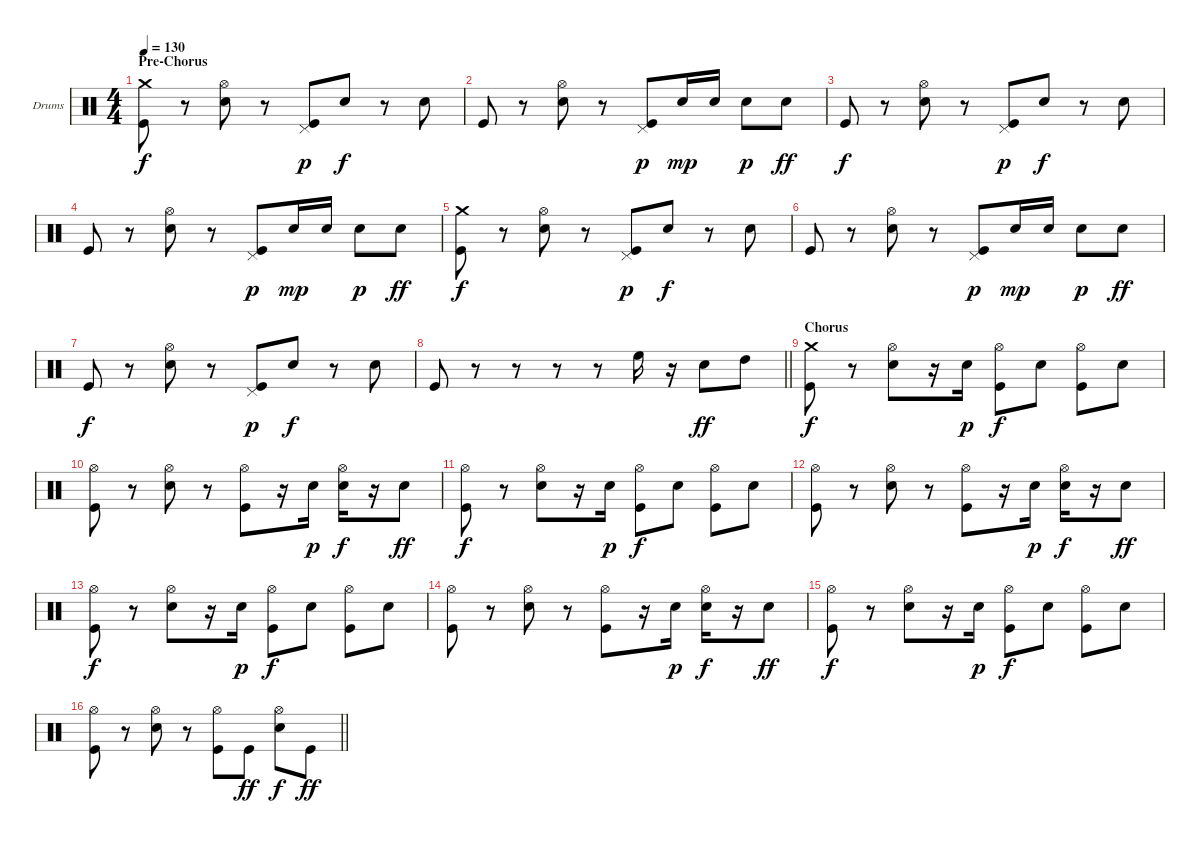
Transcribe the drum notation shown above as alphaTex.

\bracketExtendMode groupsimilarinstruments
\firstSystemTrackNameOrientation horizontal
\otherSystemsTrackNameOrientation horizontal
\track ("Drumkit" "Drums") {instrument percussion}
\staff {score}
\articulation defaults
\ts (4 4)
\section ("" "Pre-Chorus")
\tempo 130
\clef neutral
\ks c
("Crash medium (hit)" "Kick (hit)").8{dy f} r.8 ("Hi-Hat (open)" "Snare (hit) 2").8 r.8 ("Pedal Hi-Hat (hit)" "Kick (hit)").8{dy p} "Snare (hit) 2".8{dy f} r.8 "Snare (hit) 2".8 |
"Kick (hit)".8 r.8 ("Hi-Hat (open)" "Snare (hit) 2").8 r.8 ("Pedal Hi-Hat (hit)" "Kick (hit)").8{dy p} "Snare (hit) 2".16{dy mp} "Snare (hit) 2".16 "Snare (hit) 2".8{dy p} "Snare (hit) 2".8{dy ff} |
"Kick (hit)".8{dy f} r.8 ("Hi-Hat (open)" "Snare (hit) 2").8 r.8 ("Pedal Hi-Hat (hit)" "Kick (hit)").8{dy p} "Snare (hit) 2".8{dy f} r.8 "Snare (hit) 2".8 |
"Kick (hit)".8 r.8 ("Hi-Hat (open)" "Snare (hit) 2").8 r.8 ("Pedal Hi-Hat (hit)" "Kick (hit)").8{dy p} "Snare (hit) 2".16{dy mp} "Snare (hit) 2".16 "Snare (hit) 2".8{dy p} "Snare (hit) 2".8{dy ff} |
("Crash medium (hit)" "Kick (hit)").8{dy f} r.8 ("Hi-Hat (open)" "Snare (hit) 2").8 r.8 ("Pedal Hi-Hat (hit)" "Kick (hit)").8{dy p} "Snare (hit) 2".8{dy f} r.8 "Snare (hit) 2".8 |
"Kick (hit)".8 r.8 ("Hi-Hat (open)" "Snare (hit) 2").8 r.8 ("Pedal Hi-Hat (hit)" "Kick (hit)").8{dy p} "Snare (hit) 2".16{dy mp} "Snare (hit) 2".16 "Snare (hit) 2".8{dy p} "Snare (hit) 2".8{dy ff} |
"Kick (hit)".8{dy f} r.8 ("Hi-Hat (open)" "Snare (hit) 2").8 r.8 ("Pedal Hi-Hat (hit)" "Kick (hit)").8{dy p} "Snare (hit) 2".8{dy f} r.8 "Snare (hit) 2".8 |
\barLineRight lightlight "Kick (hit)".8
r.8 r.8 r.8 r.8 "High Floor Tom (hit)".16 r.16 "Snare (hit) 2".8{dy ff} "High Tom (hit)".8 |
\section ("" "Chorus")
("Crash medium (hit)" "Kick (hit)").8{dy f} r.8 ("Hi-Hat (open)" "Snare (hit) 2").8 r.16 "Snare (hit) 2".16{dy p} ("Hi-Hat (open)" "Kick (hit)").8{dy f} "Snare (hit) 2".8 ("Hi-Hat (open)" "Kick (hit)").8 "Snare (hit) 2".8 |
("Hi-Hat (open)" "Kick (hit)").8 r.8 ("Hi-Hat (open)" "Snare (hit) 2").8 r.8 ("Hi-Hat (open)" "Kick (hit)").8 r.16 "Snare (hit) 2".16{dy p} ("Hi-Hat (open)" "Snare (hit) 2").16{dy f} r.16 "Snare (hit) 2".8{dy ff} |
("Hi-Hat (open)" "Kick (hit)").8{dy f} r.8 ("Hi-Hat (open)" "Snare (hit) 2").8 r.16 "Snare (hit) 2".16{dy p} ("Hi-Hat (open)" "Kick (hit)").8{dy f} "Snare (hit) 2".8 ("Hi-Hat (open)" "Kick (hit)").8 "Snare (hit) 2".8 |
("Hi-Hat (open)" "Kick (hit)").8 r.8 ("Hi-Hat (open)" "Snare (hit) 2").8 r.8 ("Hi-Hat (open)" "Kick (hit)").8 r.16 "Snare (hit) 2".16{dy p} ("Hi-Hat (open)" "Snare (hit) 2").16{dy f} r.16 "Snare (hit) 2".8{dy ff} |
("Hi-Hat (open)" "Kick (hit)").8{dy f} r.8 ("Hi-Hat (open)" "Snare (hit) 2").8 r.16 "Snare (hit) 2".16{dy p} ("Hi-Hat (open)" "Kick (hit)").8{dy f} "Snare (hit) 2".8 ("Hi-Hat (open)" "Kick (hit)").8 "Snare (hit) 2".8 |
("Hi-Hat (open)" "Kick (hit)").8 r.8 ("Hi-Hat (open)" "Snare (hit) 2").8 r.8 ("Hi-Hat (open)" "Kick (hit)").8 r.16 "Snare (hit) 2".16{dy p} ("Hi-Hat (open)" "Snare (hit) 2").16{dy f} r.16 "Snare (hit) 2".8{dy ff} |
("Hi-Hat (open)" "Kick (hit)").8{dy f} r.8 ("Hi-Hat (open)" "Snare (hit) 2").8 r.16 "Snare (hit) 2".16{dy p} ("Hi-Hat (open)" "Kick (hit)").8{dy f} "Snare (hit) 2".8 ("Hi-Hat (open)" "Kick (hit)").8 "Snare (hit) 2".8 |
\barLineRight lightlight
("Hi-Hat (open)" "Kick (hit)").8 r.8 ("Hi-Hat (open)" "Snare (hit) 2").8 r.8 ("Hi-Hat (open)" "Kick (hit)").8 "Kick (hit)".8{dy ff} ("Hi-Hat (open)" "Snare (hit) 2").8{dy f} "Kick (hit)".8{dy ff}
